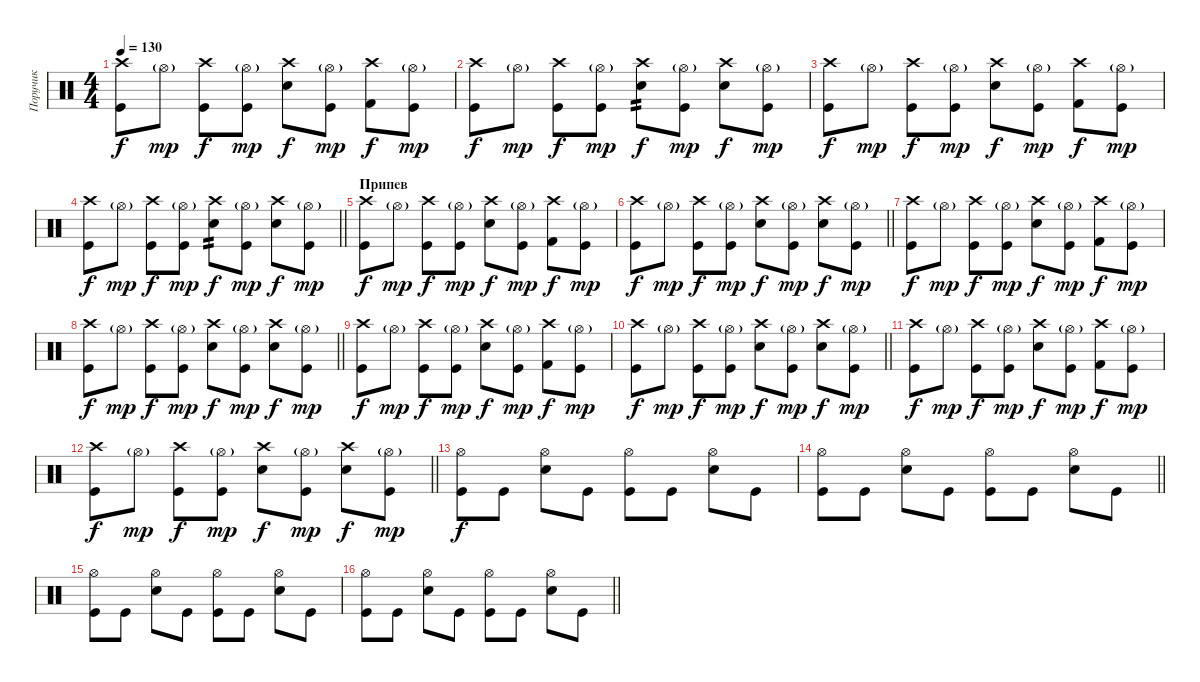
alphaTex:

\track ("Поручик" "Поручик") {instrument percussion}
\staff {score}
\articulation defaults
\ts (4 4)
\tempo 130
\clef neutral
\ks c
("Crash high (hit)" "Kick (hit)").8{dy f} "Hi-Hat (open)"{g}.8{dy mp} ("Crash high (hit)" "Kick (hit)").8{dy f} ("Hi-Hat (open)"{g} "Kick (hit)").8{dy mp} ("Electric Snare (hit)" "Crash high (hit)").8{dy f} ("Hi-Hat (open)"{g} "Kick (hit)").8{dy mp} ("Crash high (hit)" "Kick (hit) 2").8{dy f} ("Hi-Hat (open)"{g} "Kick (hit)").8{dy mp} |
("Crash high (hit)" "Kick (hit)").8{dy f} "Hi-Hat (open)"{g}.8{dy mp} ("Crash high (hit)" "Kick (hit)").8{dy f} ("Hi-Hat (open)"{g} "Kick (hit)").8{dy mp} ("Electric Snare (hit)" "Crash high (hit)").8{tp 2 dy f} ("Hi-Hat (open)"{g} "Kick (hit)").8{dy mp} ("Crash high (hit)" "Electric Snare (hit)").8{dy f} ("Hi-Hat (open)"{g} "Kick (hit)").8{dy mp} |
("Crash high (hit)" "Kick (hit)").8{dy f} "Hi-Hat (open)"{g}.8{dy mp} ("Crash high (hit)" "Kick (hit)").8{dy f} ("Hi-Hat (open)"{g} "Kick (hit)").8{dy mp} ("Electric Snare (hit)" "Crash high (hit)").8{dy f} ("Hi-Hat (open)"{g} "Kick (hit)").8{dy mp} ("Crash high (hit)" "Kick (hit) 2").8{dy f} ("Hi-Hat (open)"{g} "Kick (hit)").8{dy mp} |
\barLineRight lightlight
("Crash high (hit)" "Kick (hit)").8{dy f} "Hi-Hat (open)"{g}.8{dy mp} ("Crash high (hit)" "Kick (hit)").8{dy f} ("Hi-Hat (open)"{g} "Kick (hit)").8{dy mp} ("Electric Snare (hit)" "Crash high (hit)").8{tp 2 dy f} ("Hi-Hat (open)"{g} "Kick (hit)").8{dy mp} ("Crash high (hit)" "Electric Snare (hit)").8{dy f} ("Hi-Hat (open)"{g} "Kick (hit)").8{dy mp} |
\section ("" "Припев")
("Crash high (hit)" "Kick (hit)").8{dy f} "Hi-Hat (open)"{g}.8{dy mp} ("Crash high (hit)" "Kick (hit)").8{dy f} ("Hi-Hat (open)"{g} "Kick (hit)").8{dy mp} ("Electric Snare (hit)" "Crash high (hit)").8{dy f} ("Hi-Hat (open)"{g} "Kick (hit)").8{dy mp} ("Crash high (hit)" "Kick (hit) 2").8{dy f} ("Hi-Hat (open)"{g} "Kick (hit)").8{dy mp} |
\barLineRight lightlight
("Crash high (hit)" "Kick (hit)").8{dy f} "Hi-Hat (open)"{g}.8{dy mp} ("Crash high (hit)" "Kick (hit)").8{dy f} ("Hi-Hat (open)"{g} "Kick (hit)").8{dy mp} ("Electric Snare (hit)" "Crash high (hit)").8{dy f} ("Hi-Hat (open)"{g} "Kick (hit)").8{dy mp} ("Crash high (hit)" "Electric Snare (hit)").8{dy f} ("Hi-Hat (open)"{g} "Kick (hit)").8{dy mp} |
("Crash high (hit)" "Kick (hit)").8{dy f} "Hi-Hat (open)"{g}.8{dy mp} ("Crash high (hit)" "Kick (hit)").8{dy f} ("Hi-Hat (open)"{g} "Kick (hit)").8{dy mp} ("Electric Snare (hit)" "Crash high (hit)").8{dy f} ("Hi-Hat (open)"{g} "Kick (hit)").8{dy mp} ("Crash high (hit)" "Kick (hit) 2").8{dy f} ("Hi-Hat (open)"{g} "Kick (hit)").8{dy mp} |
\barLineRight lightlight
("Crash high (hit)" "Kick (hit)").8{dy f} "Hi-Hat (open)"{g}.8{dy mp} ("Crash high (hit)" "Kick (hit)").8{dy f} ("Hi-Hat (open)"{g} "Kick (hit)").8{dy mp} ("Electric Snare (hit)" "Crash high (hit)").8{dy f} ("Hi-Hat (open)"{g} "Kick (hit)").8{dy mp} ("Crash high (hit)" "Electric Snare (hit)").8{dy f} ("Hi-Hat (open)"{g} "Kick (hit)").8{dy mp} |
("Crash high (hit)" "Kick (hit)").8{dy f} "Hi-Hat (open)"{g}.8{dy mp} ("Crash high (hit)" "Kick (hit)").8{dy f} ("Hi-Hat (open)"{g} "Kick (hit)").8{dy mp} ("Electric Snare (hit)" "Crash high (hit)").8{dy f} ("Hi-Hat (open)"{g} "Kick (hit)").8{dy mp} ("Crash high (hit)" "Kick (hit) 2").8{dy f} ("Hi-Hat (open)"{g} "Kick (hit)").8{dy mp} |
\barLineRight lightlight
("Crash high (hit)" "Kick (hit)").8{dy f} "Hi-Hat (open)"{g}.8{dy mp} ("Crash high (hit)" "Kick (hit)").8{dy f} ("Hi-Hat (open)"{g} "Kick (hit)").8{dy mp} ("Electric Snare (hit)" "Crash high (hit)").8{dy f} ("Hi-Hat (open)"{g} "Kick (hit)").8{dy mp} ("Crash high (hit)" "Electric Snare (hit)").8{dy f} ("Hi-Hat (open)"{g} "Kick (hit)").8{dy mp} |
("Crash high (hit)" "Kick (hit)").8{dy f} "Hi-Hat (open)"{g}.8{dy mp} ("Crash high (hit)" "Kick (hit)").8{dy f} ("Hi-Hat (open)"{g} "Kick (hit)").8{dy mp} ("Electric Snare (hit)" "Crash high (hit)").8{dy f} ("Hi-Hat (open)"{g} "Kick (hit)").8{dy mp} ("Crash high (hit)" "Kick (hit) 2").8{dy f} ("Hi-Hat (open)"{g} "Kick (hit)").8{dy mp} |
\barLineRight lightlight
("Crash high (hit)" "Kick (hit)").8{dy f} "Hi-Hat (open)"{g}.8{dy mp} ("Crash high (hit)" "Kick (hit)").8{dy f} ("Hi-Hat (open)"{g} "Kick (hit)").8{dy mp} ("Electric Snare (hit)" "Crash high (hit)").8{dy f} ("Hi-Hat (open)"{g} "Kick (hit)").8{dy mp} ("Crash high (hit)" "Electric Snare (hit)").8{dy f} ("Hi-Hat (open)"{g} "Kick (hit)").8{dy mp} |
("Kick (hit)" "Hi-Hat (open)").8{dy f} "Kick (hit)".8 ("Electric Snare (hit)" "Hi-Hat (open)").8 "Kick (hit)".8 ("Kick (hit)" "Hi-Hat (open)").8 "Kick (hit)".8 ("Electric Snare (hit)" "Hi-Hat (open)").8 "Kick (hit)".8 |
\barLineRight lightlight
("Kick (hit)" "Hi-Hat (open)").8 "Kick (hit)".8 ("Electric Snare (hit)" "Hi-Hat (open)").8 "Kick (hit)".8 ("Kick (hit)" "Hi-Hat (open)").8 "Kick (hit)".8 ("Electric Snare (hit)" "Hi-Hat (open)").8 "Kick (hit)".8 |
("Kick (hit)" "Hi-Hat (open)").8 "Kick (hit)".8 ("Electric Snare (hit)" "Hi-Hat (open)").8 "Kick (hit)".8 ("Kick (hit)" "Hi-Hat (open)").8 "Kick (hit)".8 ("Electric Snare (hit)" "Hi-Hat (open)").8 "Kick (hit)".8 |
\barLineRight lightlight
("Kick (hit)" "Hi-Hat (open)").8 "Kick (hit)".8 ("Electric Snare (hit)" "Hi-Hat (open)").8 "Kick (hit)".8 ("Kick (hit)" "Hi-Hat (open)").8 "Kick (hit)".8 ("Electric Snare (hit)" "Hi-Hat (open)").8 "Kick (hit)".8
